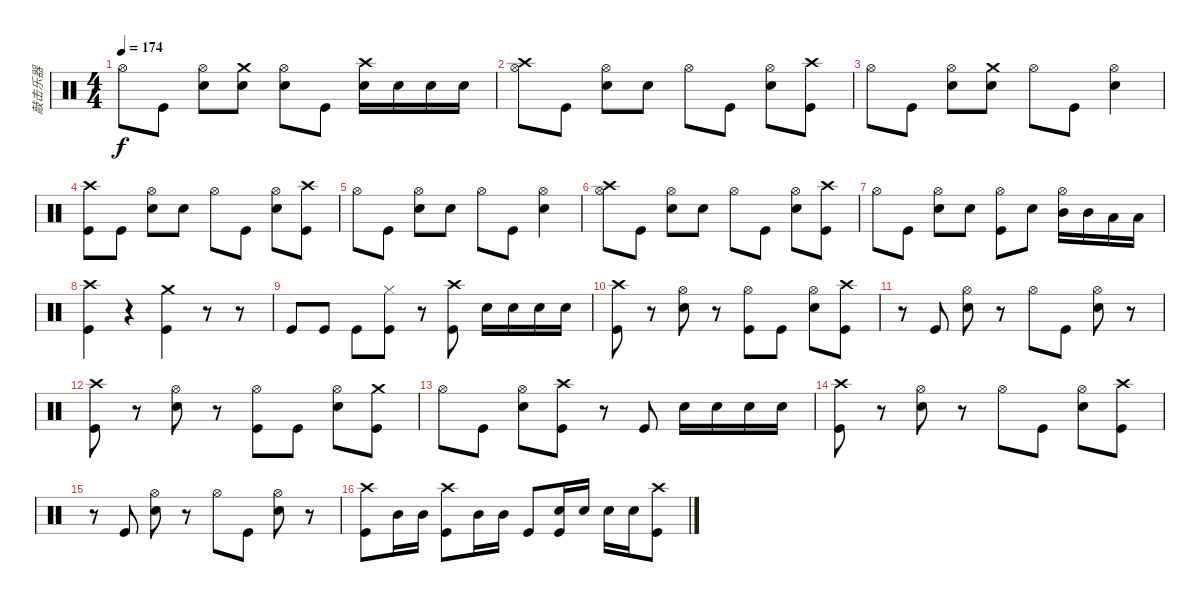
\track ("敲击乐器" "敲击乐器") {instrument percussion}
\staff {score}
\articulation defaults
\ts (4 4)
\tempo 174
\clef neutral
\ks c "Hi-Hat (open)".8{dy f} "Kick (hit)".8
("Snare (hit) 2" "Hi-Hat (open)").8 ("Snare (hit) 2" "Crash medium (hit)").8 ("Hi-Hat (open)" "Snare (hit) 2").8 "Kick (hit)".8 ("Snare (hit) 2" "Crash high (hit)").16 "Snare (hit) 2".16 "Snare (hit) 2".16 "Snare (hit) 2".16 |
("Hi-Hat (open)" "Crash high (hit)").8 "Kick (hit)".8 ("Hi-Hat (open)" "Snare (hit) 2").8 "Snare (hit) 2".8 "Hi-Hat (open)".8 "Kick (hit)".8 ("Snare (hit) 2" "Hi-Hat (open)").8 ("Kick (hit)" "Crash high (hit)").8 |
"Hi-Hat (open)".8 "Kick (hit)".8 ("Snare (hit) 2" "Hi-Hat (open)").8 ("Snare (hit) 2" "Crash medium (hit)").8 "Hi-Hat (open)".8 "Kick (hit)".8 ("Snare (hit) 2" "Hi-Hat (open)").4 |
("Kick (hit)" "Crash high (hit)").8 "Kick (hit)".8 ("Hi-Hat (open)" "Snare (hit) 2").8 "Snare (hit) 2".8 "Hi-Hat (open)".8 "Kick (hit)".8 ("Snare (hit) 2" "Hi-Hat (open)").8 ("Kick (hit)" "Crash high (hit)").8 |
"Hi-Hat (open)".8 "Kick (hit)".8 ("Snare (hit) 2" "Hi-Hat (open)").8 "Snare (hit) 2".8 "Hi-Hat (open)".8 "Kick (hit)".8 ("Snare (hit) 2" "Hi-Hat (open)").4 |
("Hi-Hat (open)" "Crash high (hit)").8 "Kick (hit)".8 ("Hi-Hat (open)" "Snare (hit) 2").8 "Snare (hit) 2".8 "Hi-Hat (open)".8 "Kick (hit)".8 ("Snare (hit) 2" "Hi-Hat (open)").8 ("Kick (hit)" "Crash high (hit)").8 |
"Hi-Hat (open)".8 "Kick (hit)".8 ("Snare (hit) 2" "Hi-Hat (open)").8 "Snare (hit) 2".8 ("Hi-Hat (open)" "Kick (hit)").8 "Snare (hit) 2".8 ("Mid Tom (hit)" "Hi-Hat (open)").16 "Mid Tom (hit)".16 "Low Tom (hit)".16 "Low Tom (hit)".16 |
("Crash high (hit)" "Kick (hit)").4 r.4 ("Kick (hit)" "Crash medium (hit)").4 r.8 r.8 |
"Kick (hit)".8 "Kick (hit)".8 "Kick (hit)".8 ("Kick (hit)" "Hi-Hat (closed)").8 r.8 ("Crash high (hit)" "Kick (hit)").8 "Electric Snare (hit)".16 "Electric Snare (hit)".16 "Electric Snare (hit)".16 "Electric Snare (hit)".16 |
("Crash high (hit)" "Kick (hit)").8 r.8 ("Electric Snare (hit)" "Hi-Hat (open)").8 r.8 ("Kick (hit)" "Hi-Hat (open)").8 "Kick (hit)".8 ("Electric Snare (hit)" "Hi-Hat (open)").8 ("Kick (hit)" "Crash high (hit)").8 |
r.8 "Kick (hit)".8 ("Hi-Hat (open)" "Electric Snare (hit)").8 r.8 "Hi-Hat (open)".8 "Kick (hit)".8 ("Electric Snare (hit)" "Hi-Hat (open)").8 r.8 |
("Kick (hit)" "Crash high (hit)").8 r.8 ("Electric Snare (hit)" "Hi-Hat (open)").8 r.8 ("Kick (hit)" "Hi-Hat (open)").8 "Kick (hit)".8 ("Electric Snare (hit)" "Hi-Hat (open)").8 ("Kick (hit)" "Crash medium (hit)").8 |
"Hi-Hat (open)".8 "Kick (hit)".8 ("Snare (hit) 2" "Hi-Hat (open)").8 ("Kick (hit)" "Crash high (hit)").8 r.8 "Kick (hit)".8 "Electric Snare (hit)".16 "Electric Snare (hit)".16 "Electric Snare (hit)".16 "Electric Snare (hit)".16 |
("Crash high (hit)" "Kick (hit)").8 r.8 ("Electric Snare (hit)" "Hi-Hat (open)").8 r.8 "Hi-Hat (open)".8 "Kick (hit)".8 ("Electric Snare (hit)" "Hi-Hat (open)").8 ("Kick (hit)" "Crash high (hit)").8 |
r.8 "Kick (hit)".8 ("Hi-Hat (open)" "Electric Snare (hit)").8 r.8 "Hi-Hat (open)".8 "Kick (hit)".8 ("Electric Snare (hit)" "Hi-Hat (open)").8 r.8 |
("Kick (hit)" "Crash high (hit)").8 "Mid Tom (hit)".16 "Mid Tom (hit)".16 ("Kick (hit)" "Crash high (hit)").8 "Mid Tom (hit)".16 "Mid Tom (hit)".16 "Kick (hit)".8 ("Kick (hit)" "Electric Snare (hit)").16 "Electric Snare (hit)".16 "Electric Snare (hit)".16 "Electric Snare (hit)".16 ("Kick (hit)" "Crash high (hit)").8
